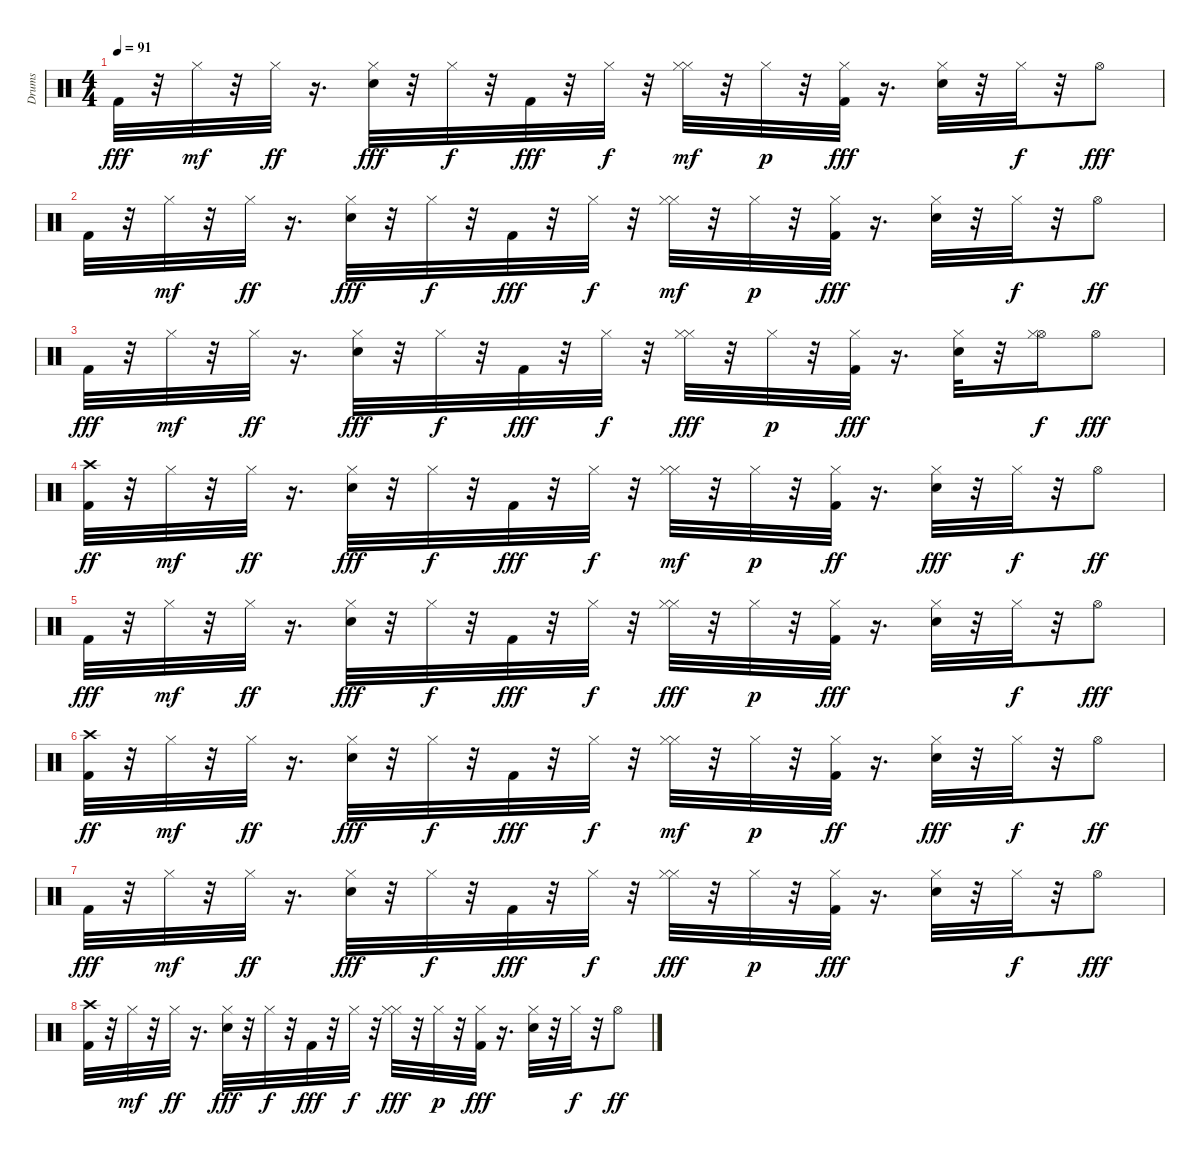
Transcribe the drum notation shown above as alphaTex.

\track ("Drums" "Drums") {instrument percussion}
\staff {score}
\articulation defaults
\ts (4 4)
\tempo 91
\clef neutral
\ks c "Kick (hit) 2".32{dy fff}
r.32 "Hi-Hat (closed)".32{dy mf} r.32 "Hi-Hat (closed)".32{dy ff} r.16{d} ("Snare (hit) 2" "Hi-Hat (closed)").32{dy fff} r.32 "Hi-Hat (closed)".32{dy f} r.32 "Kick (hit) 2".32{dy fff} r.32 "Hi-Hat (closed)".32{dy f} r.32 ("Hi-Hat (closed)" "Hi-Hat (closed)").32{dy mf} r.32 "Hi-Hat (closed)".32{dy p} r.32 ("Hi-Hat (closed)" "Kick (hit) 2").32{dy fff} r.16{d} ("Snare (hit) 2" "Hi-Hat (closed)").32 r.32 "Hi-Hat (closed)".32{dy f} r.32 "Hi-Hat (open)".8{dy fff} |
"Kick (hit) 2".32 r.32 "Hi-Hat (closed)".32{dy mf} r.32 "Hi-Hat (closed)".32{dy ff} r.16{d} ("Hi-Hat (closed)" "Snare (hit) 2").32{dy fff} r.32 "Hi-Hat (closed)".32{dy f} r.32 "Kick (hit) 2".32{dy fff} r.32 "Hi-Hat (closed)".32{dy f} r.32 ("Hi-Hat (closed)" "Hi-Hat (closed)").32{dy mf} r.32 "Hi-Hat (closed)".32{dy p} r.32 ("Hi-Hat (closed)" "Kick (hit) 2").32{dy fff} r.16{d} ("Snare (hit) 2" "Hi-Hat (closed)").32 r.32 "Hi-Hat (closed)".32{dy f} r.32 "Hi-Hat (open)".8{dy ff} |
"Kick (hit) 2".32{dy fff} r.32 "Hi-Hat (closed)".32{dy mf} r.32 "Hi-Hat (closed)".32{dy ff} r.16{d} ("Hi-Hat (closed)" "Snare (hit) 2").32{dy fff} r.32 "Hi-Hat (closed)".32{dy f} r.32 "Kick (hit) 2".32{dy fff} r.32 "Hi-Hat (closed)".32{dy f} r.32 ("Hi-Hat (closed)" "Hi-Hat (closed)").32{dy fff} r.32 "Hi-Hat (closed)".32{dy p} r.32 ("Hi-Hat (closed)" "Kick (hit) 2").32{dy fff} r.16{d} ("Hi-Hat (closed)" "Snare (hit) 2").32 r.32 ("Hi-Hat (open)" "Hi-Hat (closed)").16{dy f} "Hi-Hat (open)".8{dy fff} |
("Kick (hit) 2" "Crash high (hit)").32{dy ff} r.32 "Hi-Hat (closed)".32{dy mf} r.32 "Hi-Hat (closed)".32{dy ff} r.16{d} ("Snare (hit) 2" "Hi-Hat (closed)").32{dy fff} r.32 "Hi-Hat (closed)".32{dy f} r.32 "Kick (hit) 2".32{dy fff} r.32 "Hi-Hat (closed)".32{dy f} r.32 ("Hi-Hat (closed)" "Hi-Hat (closed)").32{dy mf} r.32 "Hi-Hat (closed)".32{dy p} r.32 ("Kick (hit) 2" "Hi-Hat (closed)").32{dy ff} r.16{d} ("Snare (hit) 2" "Hi-Hat (closed)").32{dy fff} r.32 "Hi-Hat (closed)".32{dy f} r.32 "Hi-Hat (open)".8{dy ff} |
"Kick (hit) 2".32{dy fff} r.32 "Hi-Hat (closed)".32{dy mf} r.32 "Hi-Hat (closed)".32{dy ff} r.16{d} ("Hi-Hat (closed)" "Snare (hit) 2").32{dy fff} r.32 "Hi-Hat (closed)".32{dy f} r.32 "Kick (hit) 2".32{dy fff} r.32 "Hi-Hat (closed)".32{dy f} r.32 ("Hi-Hat (closed)" "Hi-Hat (closed)").32{dy fff} r.32 "Hi-Hat (closed)".32{dy p} r.32 ("Hi-Hat (closed)" "Kick (hit) 2").32{dy fff} r.16{d} ("Hi-Hat (closed)" "Snare (hit) 2").32 r.32 "Hi-Hat (closed)".32{dy f} r.32 "Hi-Hat (open)".8{dy fff} |
("Kick (hit) 2" "Crash high (hit)").32{dy ff} r.32 "Hi-Hat (closed)".32{dy mf} r.32 "Hi-Hat (closed)".32{dy ff} r.16{d} ("Hi-Hat (closed)" "Snare (hit) 2").32{dy fff} r.32 "Hi-Hat (closed)".32{dy f} r.32 "Kick (hit) 2".32{dy fff} r.32 "Hi-Hat (closed)".32{dy f} r.32 ("Hi-Hat (closed)" "Hi-Hat (closed)").32{dy mf} r.32 "Hi-Hat (closed)".32{dy p} r.32 ("Kick (hit) 2" "Hi-Hat (closed)").32{dy ff} r.16{d} ("Hi-Hat (closed)" "Snare (hit) 2").32{dy fff} r.32 "Hi-Hat (closed)".32{dy f} r.32 "Hi-Hat (open)".8{dy ff} |
"Kick (hit) 2".32{dy fff} r.32 "Hi-Hat (closed)".32{dy mf} r.32 "Hi-Hat (closed)".32{dy ff} r.16{d} ("Hi-Hat (closed)" "Snare (hit) 2").32{dy fff} r.32 "Hi-Hat (closed)".32{dy f} r.32 "Kick (hit) 2".32{dy fff} r.32 "Hi-Hat (closed)".32{dy f} r.32 ("Hi-Hat (closed)" "Hi-Hat (closed)").32{dy fff} r.32 "Hi-Hat (closed)".32{dy p} r.32 ("Hi-Hat (closed)" "Kick (hit) 2").32{dy fff} r.16{d} ("Snare (hit) 2" "Hi-Hat (closed)").32 r.32 "Hi-Hat (closed)".32{dy f} r.32 "Hi-Hat (open)".8{dy fff} |
("Crash high (hit)" "Kick (hit) 2").32 r.32 "Hi-Hat (closed)".32{dy mf} r.32 "Hi-Hat (closed)".32{dy ff} r.16{d} ("Snare (hit) 2" "Hi-Hat (closed)").32{dy fff} r.32 "Hi-Hat (closed)".32{dy f} r.32 "Kick (hit) 2".32{dy fff} r.32 "Hi-Hat (closed)".32{dy f} r.32 ("Hi-Hat (closed)" "Hi-Hat (closed)").32{dy fff} r.32 "Hi-Hat (closed)".32{dy p} r.32 ("Hi-Hat (closed)" "Kick (hit) 2").32{dy fff} r.16{d} ("Hi-Hat (closed)" "Snare (hit) 2").32 r.32 "Hi-Hat (closed)".32{dy f} r.32 "Hi-Hat (open)".8{dy ff}
